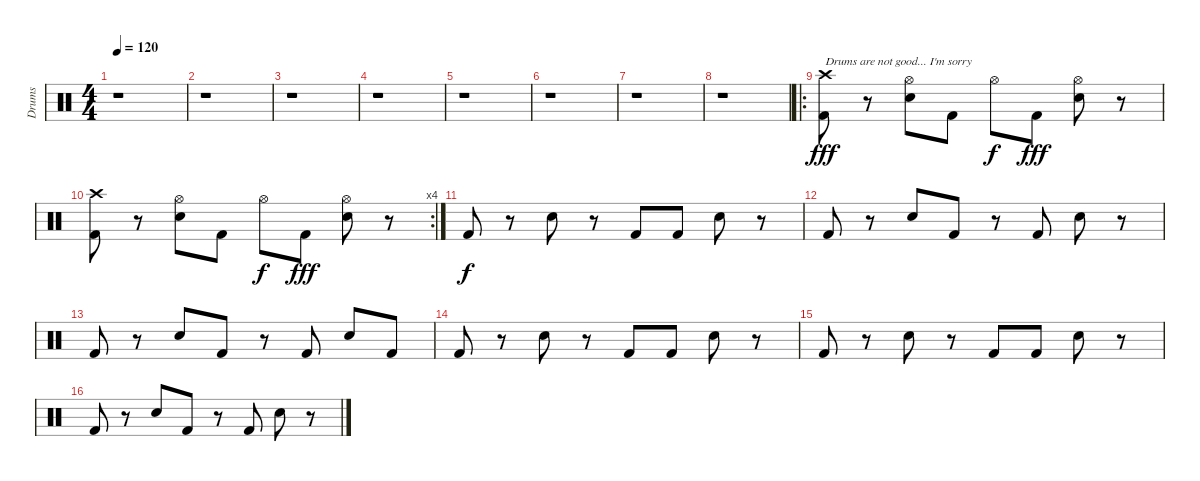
\track ("Drums" "Drums") {instrument percussion}
\staff {score}
\articulation defaults
\ts (4 4)
\tempo 120
\clef neutral
\ks c
r.1{dy fff} |
r.1 |
r.1 |
r.1 |
r.1 |
r.1 |
r.1 |
r.1 |
\ro
("Crash high (hit)" "Kick (hit) 2").8{txt "Drums are not good... I'm sorry"} r.8 ("Hi-Hat (open)" "Snare (hit) 2").8 "Kick (hit) 2".8 "Hi-Hat (open)".8{dy f} "Kick (hit) 2".8{dy fff} ("Hi-Hat (open)" "Snare (hit) 2").8 r.8 |
\rc 4
("Crash high (hit)" "Kick (hit) 2").8 r.8 ("Hi-Hat (open)" "Snare (hit) 2").8 "Kick (hit) 2".8 "Hi-Hat (open)".8{dy f} "Kick (hit) 2".8{dy fff} ("Hi-Hat (open)" "Snare (hit) 2").8 r.8 |
"Kick (hit) 2".8{dy f} r.8 "Snare (hit) 2".8 r.8 "Kick (hit) 2".8 "Kick (hit) 2".8 "Snare (hit) 2".8 r.8 |
"Kick (hit) 2".8 r.8 "Snare (hit) 2".8 "Kick (hit) 2".8 r.8 "Kick (hit) 2".8 "Snare (hit) 2".8 r.8 |
"Kick (hit) 2".8 r.8 "Snare (hit) 2".8 "Kick (hit) 2".8 r.8 "Kick (hit) 2".8 "Snare (hit) 2".8 "Kick (hit) 2".8 |
"Kick (hit) 2".8 r.8 "Snare (hit) 2".8 r.8 "Kick (hit) 2".8 "Kick (hit) 2".8 "Snare (hit) 2".8 r.8 |
"Kick (hit) 2".8 r.8 "Snare (hit) 2".8 r.8 "Kick (hit) 2".8 "Kick (hit) 2".8 "Snare (hit) 2".8 r.8 |
"Kick (hit) 2".8 r.8 "Snare (hit) 2".8 "Kick (hit) 2".8 r.8 "Kick (hit) 2".8 "Snare (hit) 2".8 r.8
